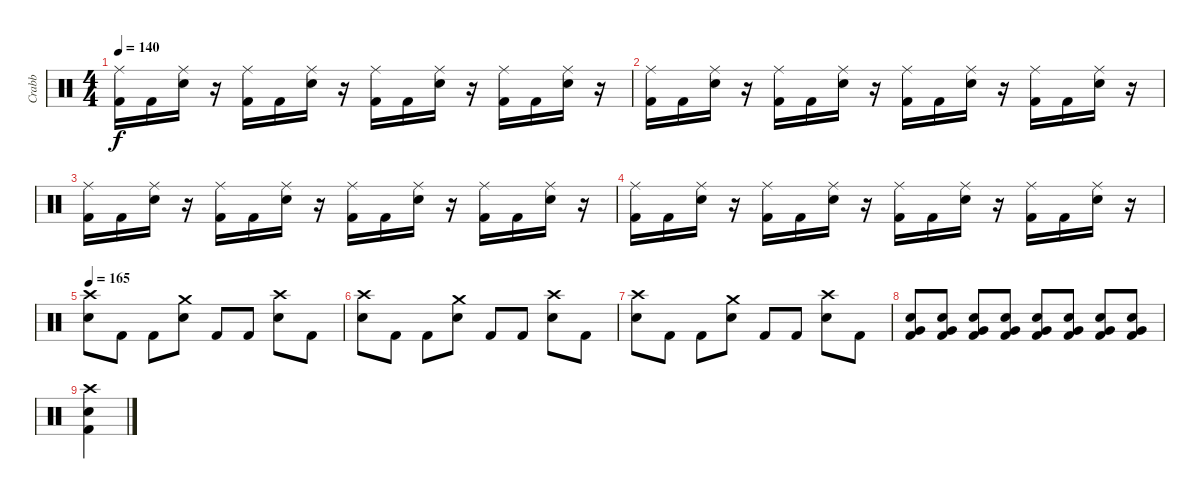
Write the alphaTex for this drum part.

\track ("Crabb" "Crabb") {instrument percussion}
\staff {score}
\articulation defaults
\ts (4 4)
\tempo 140
\clef neutral
\ks c
("Ride (middle)" "Kick (hit) 2").16{dy f} "Kick (hit) 2".16 ("Ride (middle)" "Electric Snare (hit)").16 r.16 ("Ride (middle)" "Kick (hit) 2").16 "Kick (hit) 2".16 ("Ride (middle)" "Electric Snare (hit)").16 r.16 ("Ride (middle)" "Kick (hit) 2").16 "Kick (hit) 2".16 ("Ride (middle)" "Electric Snare (hit)").16 r.16 ("Ride (middle)" "Kick (hit) 2").16 "Kick (hit) 2".16 ("Ride (middle)" "Electric Snare (hit)").16 r.16 |
("Ride (middle)" "Kick (hit) 2").16 "Kick (hit) 2".16 ("Ride (middle)" "Electric Snare (hit)").16 r.16 ("Ride (middle)" "Kick (hit) 2").16 "Kick (hit) 2".16 ("Ride (middle)" "Electric Snare (hit)").16 r.16 ("Ride (middle)" "Kick (hit) 2").16 "Kick (hit) 2".16 ("Ride (middle)" "Electric Snare (hit)").16 r.16 ("Ride (middle)" "Kick (hit) 2").16 "Kick (hit) 2".16 ("Ride (middle)" "Electric Snare (hit)").16 r.16 |
("Ride (middle)" "Kick (hit) 2").16 "Kick (hit) 2".16 ("Ride (middle)" "Electric Snare (hit)").16 r.16 ("Ride (middle)" "Kick (hit) 2").16 "Kick (hit) 2".16 ("Ride (middle)" "Electric Snare (hit)").16 r.16 ("Ride (middle)" "Kick (hit) 2").16 "Kick (hit) 2".16 ("Ride (middle)" "Electric Snare (hit)").16 r.16 ("Ride (middle)" "Kick (hit) 2").16 "Kick (hit) 2".16 ("Ride (middle)" "Electric Snare (hit)").16 r.16 |
("Ride (middle)" "Kick (hit) 2").16 "Kick (hit) 2".16 ("Ride (middle)" "Electric Snare (hit)").16 r.16 ("Ride (middle)" "Kick (hit) 2").16 "Kick (hit) 2".16 ("Ride (middle)" "Electric Snare (hit)").16 r.16 ("Ride (middle)" "Kick (hit) 2").16 "Kick (hit) 2".16 ("Ride (middle)" "Electric Snare (hit)").16 r.16 ("Ride (middle)" "Kick (hit) 2").16 "Kick (hit) 2".16 ("Ride (middle)" "Electric Snare (hit)").16 r.16 |
\tempo 165
("Crash high (hit)" "Electric Snare (hit)").8 "Kick (hit) 2".8 "Kick (hit) 2".8 ("Crash medium (hit)" "Electric Snare (hit)").8 "Kick (hit) 2".8 "Kick (hit) 2".8 ("Crash high (hit)" "Electric Snare (hit)").8 "Kick (hit) 2".8 |
("Crash high (hit)" "Electric Snare (hit)").8 "Kick (hit) 2".8 "Kick (hit) 2".8 ("Crash medium (hit)" "Electric Snare (hit)").8 "Kick (hit) 2".8 "Kick (hit) 2".8 ("Crash high (hit)" "Electric Snare (hit)").8 "Kick (hit) 2".8 |
("Crash high (hit)" "Electric Snare (hit)").8 "Kick (hit) 2".8 "Kick (hit) 2".8 ("Crash medium (hit)" "Electric Snare (hit)").8 "Kick (hit) 2".8 "Kick (hit) 2".8 ("Crash high (hit)" "Electric Snare (hit)").8 "Kick (hit) 2".8 |
("Very Low Tom (hit)" "Kick (hit) 2" "Electric Snare (hit)").8 ("Very Low Tom (hit)" "Kick (hit) 2" "Electric Snare (hit)").8 ("Very Low Tom (hit)" "Kick (hit) 2" "Electric Snare (hit)").8 ("Very Low Tom (hit)" "Kick (hit) 2" "Electric Snare (hit)").8 ("Very Low Tom (hit)" "Kick (hit) 2" "Electric Snare (hit)").8 ("Very Low Tom (hit)" "Kick (hit) 2" "Electric Snare (hit)").8 ("Very Low Tom (hit)" "Kick (hit) 2" "Electric Snare (hit)").8 ("Very Low Tom (hit)" "Kick (hit) 2" "Electric Snare (hit)").8 |
("Crash high (hit)" "Kick (hit) 2" "Electric Snare (hit)").4
